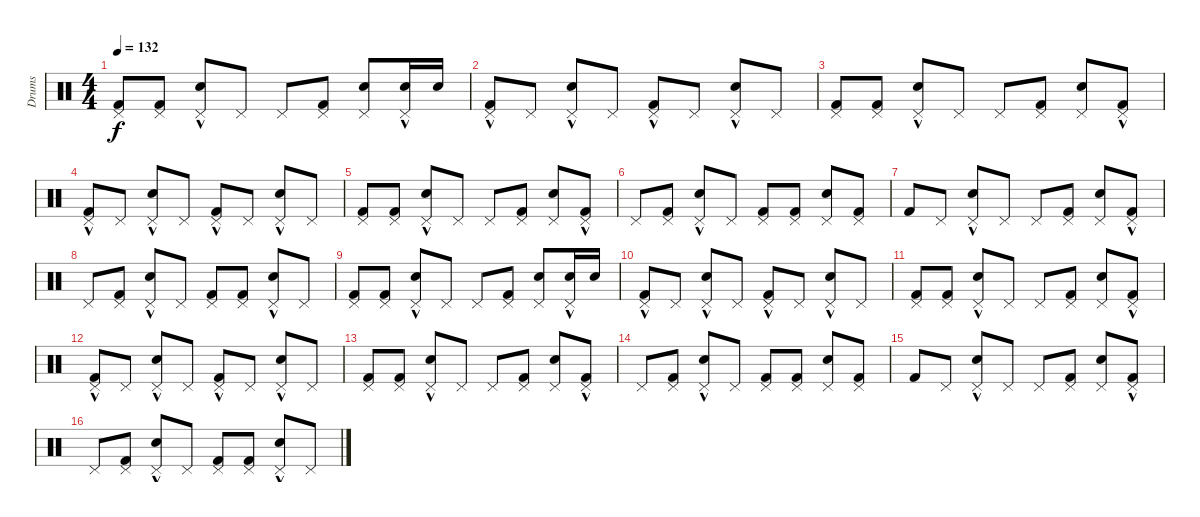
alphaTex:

\track ("Drums" "Drums") {instrument percussion}
\staff {score}
\articulation defaults
\ts (4 4)
\tempo 132
\clef neutral
\ks c
("Pedal Hi-Hat (hit)" "Kick (hit) 2").8{dy f} ("Pedal Hi-Hat (hit)" "Kick (hit) 2").8 ("Pedal Hi-Hat (hit)"{hac} "Snare (hit) 2").8 "Pedal Hi-Hat (hit)".8 "Pedal Hi-Hat (hit)".8 ("Pedal Hi-Hat (hit)" "Kick (hit) 2").8 ("Pedal Hi-Hat (hit)" "Snare (hit) 2").8 ("Pedal Hi-Hat (hit)"{hac} "Snare (hit) 2").16 "Snare (hit) 2".16 |
("Pedal Hi-Hat (hit)"{hac} "Kick (hit) 2").8 "Pedal Hi-Hat (hit)".8 ("Pedal Hi-Hat (hit)"{hac} "Snare (hit) 2").8 "Pedal Hi-Hat (hit)".8 ("Pedal Hi-Hat (hit)"{hac} "Kick (hit) 2").8 "Pedal Hi-Hat (hit)".8 ("Pedal Hi-Hat (hit)"{hac} "Snare (hit) 2").8 "Pedal Hi-Hat (hit)".8 |
("Pedal Hi-Hat (hit)" "Kick (hit) 2").8 ("Pedal Hi-Hat (hit)" "Kick (hit) 2").8 ("Pedal Hi-Hat (hit)"{hac} "Snare (hit) 2").8 "Pedal Hi-Hat (hit)".8 "Pedal Hi-Hat (hit)".8 ("Pedal Hi-Hat (hit)" "Kick (hit) 2").8 ("Pedal Hi-Hat (hit)" "Snare (hit) 2").8 ("Pedal Hi-Hat (hit)"{hac} "Kick (hit) 2"{hac}).8 |
("Pedal Hi-Hat (hit)"{hac} "Kick (hit) 2").8 "Pedal Hi-Hat (hit)".8 ("Pedal Hi-Hat (hit)"{hac} "Snare (hit) 2").8 "Pedal Hi-Hat (hit)".8 ("Pedal Hi-Hat (hit)"{hac} "Kick (hit) 2").8 "Pedal Hi-Hat (hit)".8 ("Pedal Hi-Hat (hit)"{hac} "Snare (hit) 2").8 "Pedal Hi-Hat (hit)".8 |
("Pedal Hi-Hat (hit)" "Kick (hit) 2").8 ("Pedal Hi-Hat (hit)" "Kick (hit) 2").8 ("Pedal Hi-Hat (hit)"{hac} "Snare (hit) 2").8 "Pedal Hi-Hat (hit)".8 "Pedal Hi-Hat (hit)".8 ("Pedal Hi-Hat (hit)" "Kick (hit) 2").8 ("Pedal Hi-Hat (hit)" "Snare (hit) 2").8 ("Pedal Hi-Hat (hit)"{hac} "Kick (hit) 2"{hac}).8 |
"Pedal Hi-Hat (hit)".8 ("Pedal Hi-Hat (hit)" "Kick (hit) 2").8 ("Pedal Hi-Hat (hit)"{hac} "Snare (hit) 2").8 "Pedal Hi-Hat (hit)".8 ("Pedal Hi-Hat (hit)" "Kick (hit) 2").8 ("Pedal Hi-Hat (hit)" "Kick (hit) 2").8 ("Pedal Hi-Hat (hit)" "Snare (hit) 2").8 ("Pedal Hi-Hat (hit)" "Kick (hit) 2").8 |
"Kick (hit) 2".8 "Pedal Hi-Hat (hit)".8 ("Pedal Hi-Hat (hit)"{hac} "Snare (hit) 2").8 "Pedal Hi-Hat (hit)".8 "Pedal Hi-Hat (hit)".8 ("Pedal Hi-Hat (hit)" "Kick (hit) 2").8 ("Pedal Hi-Hat (hit)" "Snare (hit) 2").8 ("Pedal Hi-Hat (hit)"{hac} "Kick (hit) 2"{hac}).8 |
"Pedal Hi-Hat (hit)".8 ("Pedal Hi-Hat (hit)" "Kick (hit) 2").8 ("Pedal Hi-Hat (hit)"{hac} "Snare (hit) 2").8 "Pedal Hi-Hat (hit)".8 ("Pedal Hi-Hat (hit)" "Kick (hit) 2").8 ("Pedal Hi-Hat (hit)" "Kick (hit) 2").8 ("Pedal Hi-Hat (hit)"{hac} "Snare (hit) 2").8 "Pedal Hi-Hat (hit)".8 |
("Pedal Hi-Hat (hit)" "Kick (hit) 2").8 ("Pedal Hi-Hat (hit)" "Kick (hit) 2").8 ("Pedal Hi-Hat (hit)"{hac} "Snare (hit) 2").8 "Pedal Hi-Hat (hit)".8 "Pedal Hi-Hat (hit)".8 ("Pedal Hi-Hat (hit)" "Kick (hit) 2").8 ("Pedal Hi-Hat (hit)" "Snare (hit) 2").8 ("Pedal Hi-Hat (hit)"{hac} "Snare (hit) 2").16 "Snare (hit) 2".16 |
("Pedal Hi-Hat (hit)"{hac} "Kick (hit) 2").8 "Pedal Hi-Hat (hit)".8 ("Pedal Hi-Hat (hit)"{hac} "Snare (hit) 2").8 "Pedal Hi-Hat (hit)".8 ("Pedal Hi-Hat (hit)"{hac} "Kick (hit) 2").8 "Pedal Hi-Hat (hit)".8 ("Pedal Hi-Hat (hit)"{hac} "Snare (hit) 2").8 "Pedal Hi-Hat (hit)".8 |
("Pedal Hi-Hat (hit)" "Kick (hit) 2").8 ("Pedal Hi-Hat (hit)" "Kick (hit) 2").8 ("Pedal Hi-Hat (hit)"{hac} "Snare (hit) 2").8 "Pedal Hi-Hat (hit)".8 "Pedal Hi-Hat (hit)".8 ("Pedal Hi-Hat (hit)" "Kick (hit) 2").8 ("Pedal Hi-Hat (hit)" "Snare (hit) 2").8 ("Pedal Hi-Hat (hit)"{hac} "Kick (hit) 2"{hac}).8 |
("Pedal Hi-Hat (hit)"{hac} "Kick (hit) 2").8 "Pedal Hi-Hat (hit)".8 ("Pedal Hi-Hat (hit)"{hac} "Snare (hit) 2").8 "Pedal Hi-Hat (hit)".8 ("Pedal Hi-Hat (hit)"{hac} "Kick (hit) 2").8 "Pedal Hi-Hat (hit)".8 ("Pedal Hi-Hat (hit)"{hac} "Snare (hit) 2").8 "Pedal Hi-Hat (hit)".8 |
("Pedal Hi-Hat (hit)" "Kick (hit) 2").8 ("Pedal Hi-Hat (hit)" "Kick (hit) 2").8 ("Pedal Hi-Hat (hit)"{hac} "Snare (hit) 2").8 "Pedal Hi-Hat (hit)".8 "Pedal Hi-Hat (hit)".8 ("Pedal Hi-Hat (hit)" "Kick (hit) 2").8 ("Pedal Hi-Hat (hit)" "Snare (hit) 2").8 ("Pedal Hi-Hat (hit)"{hac} "Kick (hit) 2"{hac}).8 |
"Pedal Hi-Hat (hit)".8 ("Pedal Hi-Hat (hit)" "Kick (hit) 2").8 ("Pedal Hi-Hat (hit)"{hac} "Snare (hit) 2").8 "Pedal Hi-Hat (hit)".8 ("Pedal Hi-Hat (hit)" "Kick (hit) 2").8 ("Pedal Hi-Hat (hit)" "Kick (hit) 2").8 ("Pedal Hi-Hat (hit)" "Snare (hit) 2").8 ("Pedal Hi-Hat (hit)" "Kick (hit) 2").8 |
"Kick (hit) 2".8 "Pedal Hi-Hat (hit)".8 ("Pedal Hi-Hat (hit)"{hac} "Snare (hit) 2").8 "Pedal Hi-Hat (hit)".8 "Pedal Hi-Hat (hit)".8 ("Pedal Hi-Hat (hit)" "Kick (hit) 2").8 ("Pedal Hi-Hat (hit)" "Snare (hit) 2").8 ("Pedal Hi-Hat (hit)"{hac} "Kick (hit) 2"{hac}).8 |
"Pedal Hi-Hat (hit)".8 ("Pedal Hi-Hat (hit)" "Kick (hit) 2").8 ("Pedal Hi-Hat (hit)"{hac} "Snare (hit) 2").8 "Pedal Hi-Hat (hit)".8 ("Pedal Hi-Hat (hit)" "Kick (hit) 2").8 ("Pedal Hi-Hat (hit)" "Kick (hit) 2").8 ("Pedal Hi-Hat (hit)"{hac} "Snare (hit) 2").8 "Pedal Hi-Hat (hit)".8
